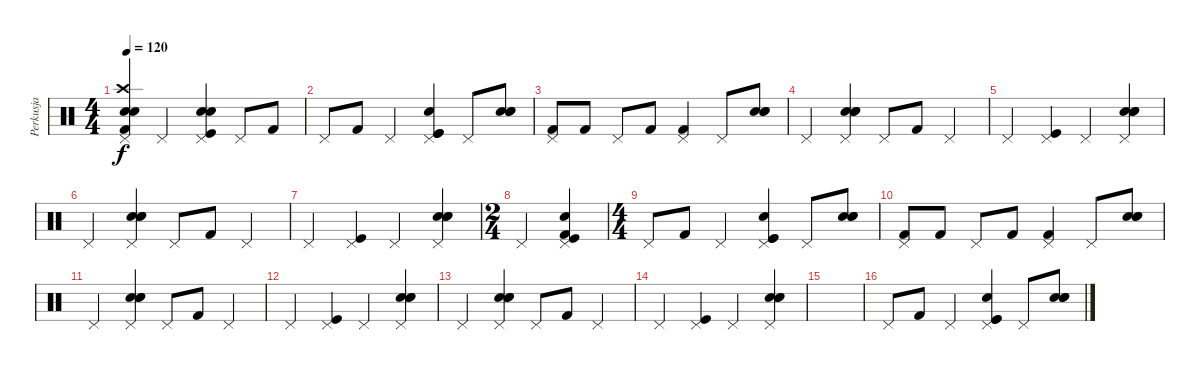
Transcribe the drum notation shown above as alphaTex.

\track ("Perkusja" "Perkusja") {instrument percussion}
\staff {score}
\articulation defaults
\ts (4 4)
\tempo 120
\clef neutral
\ks c
("Pedal Hi-Hat (hit)" "Crash high (hit)" "Snare (hit) 2" "Electric Snare (hit)" "Kick (hit) 2").4{dy f} "Pedal Hi-Hat (hit)".4 ("Pedal Hi-Hat (hit)" "Kick (hit)" "Electric Snare (hit)" "Snare (hit) 2").4 "Pedal Hi-Hat (hit)".8 "Kick (hit) 2".8 |
"Pedal Hi-Hat (hit)".8 "Kick (hit) 2".8 "Pedal Hi-Hat (hit)".4 ("Pedal Hi-Hat (hit)" "Electric Snare (hit)" "Kick (hit)" "Kick (hit)").4 "Pedal Hi-Hat (hit)".8 ("Snare (hit) 2" "Snare (hit) 2" "Electric Snare (hit)").8 |
("Pedal Hi-Hat (hit)" "Kick (hit) 2").8 "Kick (hit) 2".8 "Pedal Hi-Hat (hit)".8 "Kick (hit) 2".8 ("Pedal Hi-Hat (hit)" "Kick (hit) 2").4 "Pedal Hi-Hat (hit)".8 ("Snare (hit) 2" "Snare (hit) 2" "Electric Snare (hit)").8 |
"Pedal Hi-Hat (hit)".4 ("Pedal Hi-Hat (hit)" "Snare (hit) 2" "Snare (hit) 2" "Electric Snare (hit)").4 "Pedal Hi-Hat (hit)".8 "Kick (hit) 2".8 "Pedal Hi-Hat (hit)".4 |
"Pedal Hi-Hat (hit)".4 ("Pedal Hi-Hat (hit)" "Kick (hit)").4 "Pedal Hi-Hat (hit)".4 ("Pedal Hi-Hat (hit)" "Snare (hit) 2" "Snare (hit) 2" "Electric Snare (hit)").4 |
"Pedal Hi-Hat (hit)".4 ("Pedal Hi-Hat (hit)" "Snare (hit) 2" "Snare (hit) 2" "Electric Snare (hit)").4 "Pedal Hi-Hat (hit)".8 "Kick (hit) 2".8 "Pedal Hi-Hat (hit)".4 |
"Pedal Hi-Hat (hit)".4 ("Pedal Hi-Hat (hit)" "Kick (hit)").4 "Pedal Hi-Hat (hit)".4 ("Pedal Hi-Hat (hit)" "Snare (hit) 2" "Snare (hit) 2" "Electric Snare (hit)").4 |
\ts (2 4)
"Pedal Hi-Hat (hit)".4 ("Pedal Hi-Hat (hit)" "Electric Snare (hit)" "Kick (hit)" "Kick (hit) 2").4 |
\ts (4 4)
"Pedal Hi-Hat (hit)".8 "Kick (hit) 2".8 "Pedal Hi-Hat (hit)".4 ("Pedal Hi-Hat (hit)" "Electric Snare (hit)" "Kick (hit)" "Kick (hit)").4 "Pedal Hi-Hat (hit)".8 ("Snare (hit) 2" "Snare (hit) 2" "Electric Snare (hit)").8 |
("Pedal Hi-Hat (hit)" "Kick (hit) 2").8 "Kick (hit) 2".8 "Pedal Hi-Hat (hit)".8 "Kick (hit) 2".8 ("Pedal Hi-Hat (hit)" "Kick (hit) 2").4 "Pedal Hi-Hat (hit)".8 ("Snare (hit) 2" "Snare (hit) 2" "Electric Snare (hit)").8 |
"Pedal Hi-Hat (hit)".4 ("Pedal Hi-Hat (hit)" "Snare (hit) 2" "Snare (hit) 2" "Electric Snare (hit)").4 "Pedal Hi-Hat (hit)".8 "Kick (hit) 2".8 "Pedal Hi-Hat (hit)".4 |
"Pedal Hi-Hat (hit)".4 ("Pedal Hi-Hat (hit)" "Kick (hit)").4 "Pedal Hi-Hat (hit)".4 ("Pedal Hi-Hat (hit)" "Snare (hit) 2" "Snare (hit) 2" "Electric Snare (hit)").4 |
"Pedal Hi-Hat (hit)".4 ("Pedal Hi-Hat (hit)" "Snare (hit) 2" "Snare (hit) 2" "Electric Snare (hit)").4 "Pedal Hi-Hat (hit)".8 "Kick (hit) 2".8 "Pedal Hi-Hat (hit)".4 |
"Pedal Hi-Hat (hit)".4 ("Pedal Hi-Hat (hit)" "Kick (hit)").4 "Pedal Hi-Hat (hit)".4 ("Pedal Hi-Hat (hit)" "Snare (hit) 2" "Snare (hit) 2" "Electric Snare (hit)").4 |
|
"Pedal Hi-Hat (hit)".8 "Kick (hit) 2".8 "Pedal Hi-Hat (hit)".4 ("Pedal Hi-Hat (hit)" "Electric Snare (hit)" "Kick (hit)" "Kick (hit)").4 "Pedal Hi-Hat (hit)".8 ("Snare (hit) 2" "Snare (hit) 2" "Electric Snare (hit)").8
